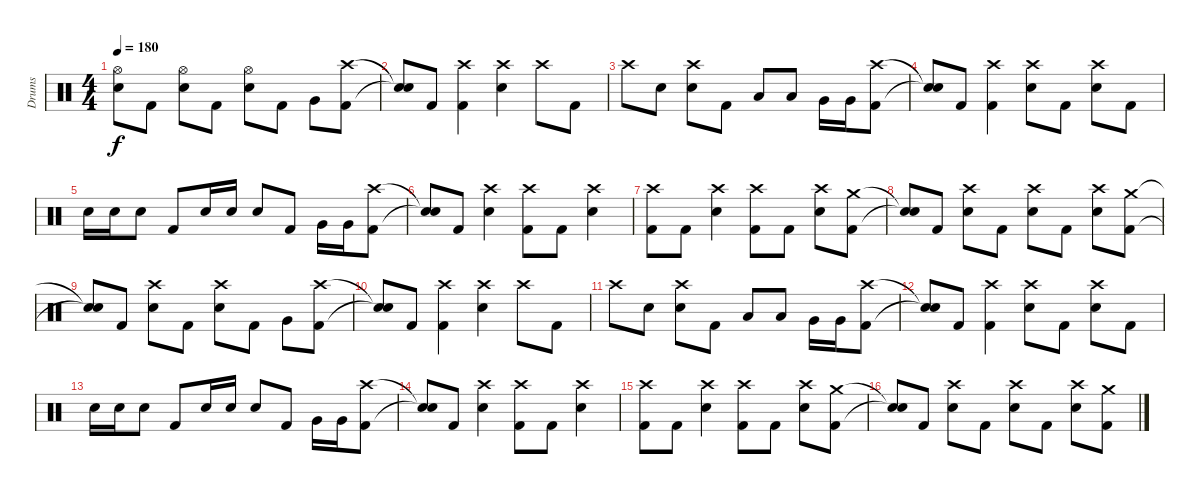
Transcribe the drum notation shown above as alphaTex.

\track ("Drums" "Drums") {instrument percussion}
\staff {score}
\articulation defaults
\ts (4 4)
\tempo 180
\clef neutral
\ks c
("Hi-Hat (open)" "Electric Snare (hit)").8{dy f} "Kick (hit) 2".8 ("Hi-Hat (open)" "Electric Snare (hit)").8 "Kick (hit) 2".8 ("Hi-Hat (open)" "Electric Snare (hit)").8 "Kick (hit) 2".8 "Very Low Tom (hit)".8 ("Crash high (hit)" "Kick (hit) 2").8 |
("Snare (hit)"{t} "Snare (hit)"{t}).8 "Kick (hit) 2".8 ("Crash high (hit)" "Kick (hit) 2").4 ("Crash high (hit)" "Electric Snare (hit)").4 "Crash high (hit)".8 "Kick (hit) 2".8 |
"Crash high (hit)".8 "Electric Snare (hit)".8 ("Crash high (hit)" "Electric Snare (hit)").8 "Kick (hit) 2".8 "Low Tom (hit)".8 "Low Tom (hit)".8 "Very Low Tom (hit)".16 "Very Low Tom (hit)".16 ("Crash high (hit)" "Kick (hit) 2").8 |
("Snare (hit)"{t} "Snare (hit)"{t}).8 "Kick (hit) 2".8 ("Crash high (hit)" "Kick (hit) 2").4 ("Crash high (hit)" "Electric Snare (hit)").8 "Kick (hit) 2".8 ("Crash high (hit)" "Electric Snare (hit)").8 "Kick (hit) 2".8 |
"Electric Snare (hit)".16 "Electric Snare (hit)".16 "Electric Snare (hit)".8 "Kick (hit) 2".8 "Electric Snare (hit)".16 "Electric Snare (hit)".16 "Electric Snare (hit)".8 "Kick (hit) 2".8 "Very Low Tom (hit)".16 "Very Low Tom (hit)".16 ("Crash high (hit)" "Kick (hit) 2").8 |
("Snare (hit)"{t} "Snare (hit)"{t}).8 "Kick (hit) 2".8 ("Crash high (hit)" "Electric Snare (hit)").4 ("Crash high (hit)" "Kick (hit) 2").8 "Kick (hit) 2".8 ("Crash high (hit)" "Electric Snare (hit)").4 |
("Crash high (hit)" "Kick (hit) 2").8 "Kick (hit) 2".8 ("Crash high (hit)" "Electric Snare (hit)").4 ("Crash high (hit)" "Kick (hit) 2").8 "Kick (hit) 2".8 ("Crash high (hit)" "Electric Snare (hit)").8 ("Crash medium (hit)" "Kick (hit) 2").8 |
("Snare (hit)"{t} "Snare (hit)"{t}).8 "Kick (hit) 2".8 ("Crash high (hit)" "Electric Snare (hit)").8 "Kick (hit) 2".8 ("Crash high (hit)" "Electric Snare (hit)").8 "Kick (hit) 2".8 ("Crash high (hit)" "Electric Snare (hit)").8 ("Crash medium (hit)" "Kick (hit) 2").8 |
("Snare (hit)"{t} "Snare (hit)"{t}).8 "Kick (hit) 2".8 ("Crash high (hit)" "Electric Snare (hit)").8 "Kick (hit) 2".8 ("Crash high (hit)" "Electric Snare (hit)").8 "Kick (hit) 2".8 "Very Low Tom (hit)".8 ("Crash high (hit)" "Kick (hit) 2").8 |
("Snare (hit)"{t} "Snare (hit)"{t}).8 "Kick (hit) 2".8 ("Crash high (hit)" "Kick (hit) 2").4 ("Crash high (hit)" "Electric Snare (hit)").4 "Crash high (hit)".8 "Kick (hit) 2".8 |
"Crash high (hit)".8 "Electric Snare (hit)".8 ("Crash high (hit)" "Electric Snare (hit)").8 "Kick (hit) 2".8 "Low Tom (hit)".8 "Low Tom (hit)".8 "Very Low Tom (hit)".16 "Very Low Tom (hit)".16 ("Crash high (hit)" "Kick (hit) 2").8 |
("Snare (hit)"{t} "Snare (hit)"{t}).8 "Kick (hit) 2".8 ("Crash high (hit)" "Kick (hit) 2").4 ("Crash high (hit)" "Electric Snare (hit)").8 "Kick (hit) 2".8 ("Crash high (hit)" "Electric Snare (hit)").8 "Kick (hit) 2".8 |
"Electric Snare (hit)".16 "Electric Snare (hit)".16 "Electric Snare (hit)".8 "Kick (hit) 2".8 "Electric Snare (hit)".16 "Electric Snare (hit)".16 "Electric Snare (hit)".8 "Kick (hit) 2".8 "Very Low Tom (hit)".16 "Very Low Tom (hit)".16 ("Crash high (hit)" "Kick (hit) 2").8 |
("Snare (hit)"{t} "Snare (hit)"{t}).8 "Kick (hit) 2".8 ("Crash high (hit)" "Electric Snare (hit)").4 ("Crash high (hit)" "Kick (hit) 2").8 "Kick (hit) 2".8 ("Crash high (hit)" "Electric Snare (hit)").4 |
("Crash high (hit)" "Kick (hit) 2").8 "Kick (hit) 2".8 ("Crash high (hit)" "Electric Snare (hit)").4 ("Crash high (hit)" "Kick (hit) 2").8 "Kick (hit) 2".8 ("Crash high (hit)" "Electric Snare (hit)").8 ("Crash medium (hit)" "Kick (hit) 2").8 |
("Snare (hit)"{t} "Snare (hit)"{t}).8 "Kick (hit) 2".8 ("Crash high (hit)" "Electric Snare (hit)").8 "Kick (hit) 2".8 ("Crash high (hit)" "Electric Snare (hit)").8 "Kick (hit) 2".8 ("Crash high (hit)" "Electric Snare (hit)").8 ("Crash medium (hit)" "Kick (hit) 2").8
